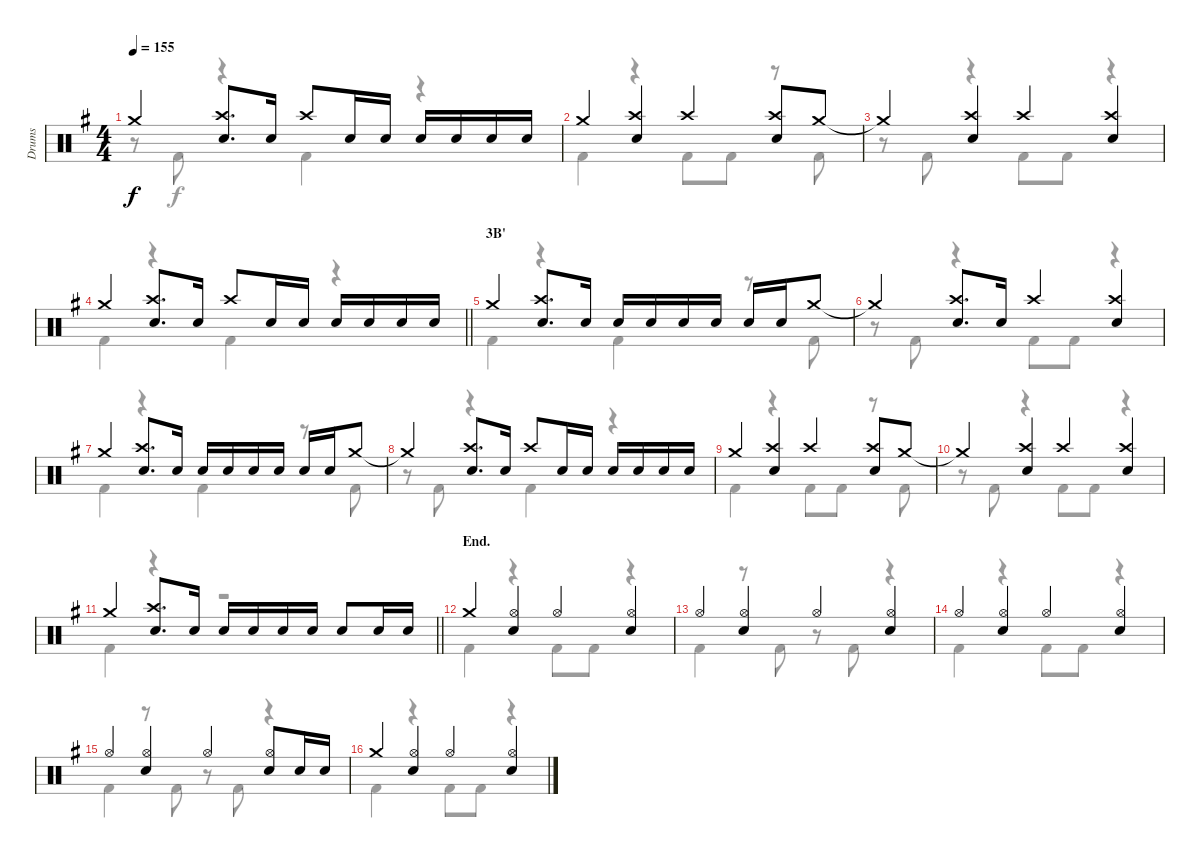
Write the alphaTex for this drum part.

\track ("Drums" "Drums") {instrument percussion}
\staff {score}
\articulation defaults
\voice
\ts (4 4)
\tempo 155
\clef neutral
\ks g "Crash medium (hit)"{t}.4{dy f}
("Crash high (hit)" "Electric Snare (hit)").8{d} "Electric Snare (hit)".16 "Crash high (hit)".8 "Electric Snare (hit)".16 "Electric Snare (hit)".16 "Electric Snare (hit)".16 "Electric Snare (hit)".16 "Electric Snare (hit)".16 "Electric Snare (hit)".16 |
"Crash medium (hit)".4 ("Crash high (hit)" "Electric Snare (hit)").4 "Crash high (hit)".4 ("Crash high (hit)" "Electric Snare (hit)").8 "Crash medium (hit)".8 |
"Crash medium (hit)"{t}.4 ("Crash high (hit)" "Electric Snare (hit)").4 "Crash high (hit)".4 ("Crash high (hit)" "Electric Snare (hit)").4 |
\barLineRight lightlight "Crash medium (hit)".4
("Crash high (hit)" "Electric Snare (hit)").8{d} "Electric Snare (hit)".16 "Crash high (hit)".8 "Electric Snare (hit)".16 "Electric Snare (hit)".16 "Electric Snare (hit)".16 "Electric Snare (hit)".16 "Electric Snare (hit)".16 "Electric Snare (hit)".16 |
\section ("" "3B'")
"Crash medium (hit)".4 ("Crash high (hit)" "Electric Snare (hit)").8{d} "Electric Snare (hit)".16 "Electric Snare (hit)".16 "Electric Snare (hit)".16 "Electric Snare (hit)".16 "Electric Snare (hit)".16 "Electric Snare (hit)".16 "Electric Snare (hit)".16 "Crash medium (hit)".8 |
"Crash medium (hit)"{t}.4 ("Crash high (hit)" "Electric Snare (hit)").8{d} "Electric Snare (hit)".16 "Crash high (hit)".4 ("Crash high (hit)" "Electric Snare (hit)").4 |
"Crash medium (hit)".4 ("Crash high (hit)" "Electric Snare (hit)").8{d} "Electric Snare (hit)".16 "Electric Snare (hit)".16 "Electric Snare (hit)".16 "Electric Snare (hit)".16 "Electric Snare (hit)".16 "Electric Snare (hit)".16 "Electric Snare (hit)".16 "Crash medium (hit)".8 |
"Crash medium (hit)"{t}.4 ("Crash high (hit)" "Electric Snare (hit)").8{d} "Electric Snare (hit)".16 "Crash high (hit)".8 "Electric Snare (hit)".16 "Electric Snare (hit)".16 "Electric Snare (hit)".16 "Electric Snare (hit)".16 "Electric Snare (hit)".16 "Electric Snare (hit)".16 |
"Crash medium (hit)".4 ("Crash high (hit)" "Electric Snare (hit)").4 "Crash high (hit)".4 ("Crash high (hit)" "Electric Snare (hit)").8 "Crash medium (hit)".8 |
"Crash medium (hit)"{t}.4 ("Crash high (hit)" "Electric Snare (hit)").4 "Crash high (hit)".4 ("Crash high (hit)" "Electric Snare (hit)").4 |
\barLineRight lightlight "Crash medium (hit)".4
("Crash high (hit)" "Electric Snare (hit)").8{d} "Electric Snare (hit)".16 "Electric Snare (hit)".16 "Electric Snare (hit)".16 "Electric Snare (hit)".16 "Electric Snare (hit)".16 "Electric Snare (hit)".8 "Electric Snare (hit)".16 "Electric Snare (hit)".16 |
\section ("" "End.")
"Crash medium (hit)".4 ("Hi-Hat (open)" "Electric Snare (hit)").4 "Hi-Hat (open)".4 ("Hi-Hat (open)" "Electric Snare (hit)").4 |
"Hi-Hat (open)".4 ("Hi-Hat (open)" "Electric Snare (hit)").4 "Hi-Hat (open)".4 ("Hi-Hat (open)" "Electric Snare (hit)").4 |
"Hi-Hat (open)".4 ("Hi-Hat (open)" "Electric Snare (hit)").4 "Hi-Hat (open)".4 ("Hi-Hat (open)" "Electric Snare (hit)").4 |
"Hi-Hat (open)".4 ("Hi-Hat (open)" "Electric Snare (hit)").4 "Hi-Hat (open)".4 ("Hi-Hat (open)" "Electric Snare (hit)").8 "Electric Snare (hit)".16 "Electric Snare (hit)".16 |
"Crash medium (hit)".4 ("Hi-Hat (open)" "Electric Snare (hit)").4 "Hi-Hat (open)".4 ("Hi-Hat (open)" "Electric Snare (hit)").4
\voice
\clef neutral
\ottava regular
\simile none
\ks g
r.8{dy f} "Kick (hit) 2".8 r.4 "Kick (hit) 2".4 r.4 |
"Kick (hit) 2".4 r.4 "Kick (hit) 2".8 "Kick (hit) 2".8 r.8 "Kick (hit) 2".8 |
r.8 "Kick (hit) 2".8 r.4 "Kick (hit) 2".8 "Kick (hit) 2".8 r.4 |
\barLineRight lightlight "Kick (hit) 2".4
r.4 "Kick (hit) 2".4 r.4 |
"Kick (hit) 2".4 r.4 "Kick (hit) 2".4 r.8 "Kick (hit) 2".8 |
r.8 "Kick (hit) 2".8 r.4 "Kick (hit) 2".8 "Kick (hit) 2".8 r.4 |
"Kick (hit) 2".4 r.4 "Kick (hit) 2".4 r.8 "Kick (hit) 2".8 |
r.8 "Kick (hit) 2".8 r.4 "Kick (hit) 2".4 r.4 |
"Kick (hit) 2".4 r.4 "Kick (hit) 2".8 "Kick (hit) 2".8 r.8 "Kick (hit) 2".8 |
r.8 "Kick (hit) 2".8 r.4 "Kick (hit) 2".8 "Kick (hit) 2".8 r.4 |
\barLineRight lightlight "Kick (hit) 2".4
r.4 r.2 |
"Kick (hit) 2".4 r.4 "Kick (hit) 2".8 "Kick (hit) 2".8 r.4 |
"Kick (hit) 2".4 r.8 "Kick (hit) 2".8 r.8 "Kick (hit) 2".8 r.4 |
"Kick (hit) 2".4 r.4 "Kick (hit) 2".8 "Kick (hit) 2".8 r.4 |
"Kick (hit) 2".4 r.8 "Kick (hit) 2".8 r.8 "Kick (hit) 2".8 r.4 |
"Kick (hit) 2".4 r.4 "Kick (hit) 2".8 "Kick (hit) 2".8 r.4
